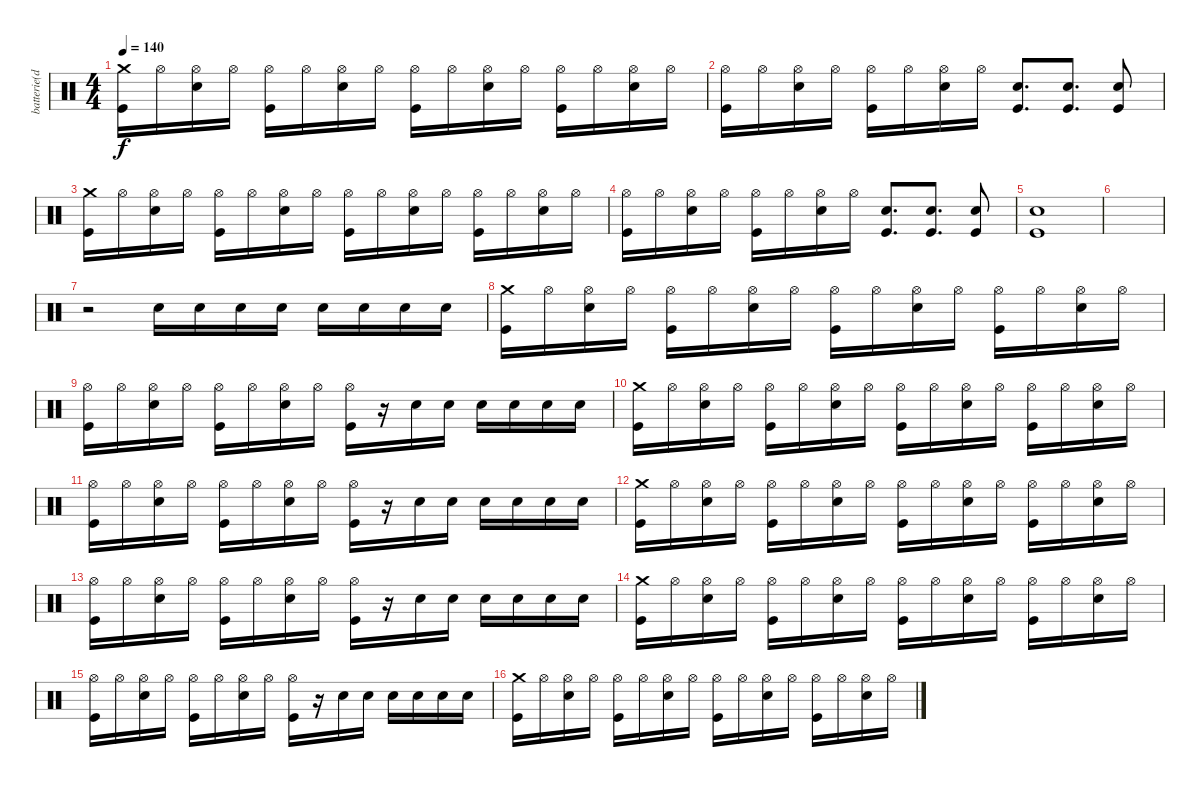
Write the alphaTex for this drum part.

\track ("batterie(dru stix)" "batterie(d") {instrument percussion}
\staff {score}
\articulation defaults
\ts (4 4)
\tempo 140
\clef neutral
\ks c
("Crash medium (hit)" "Kick (hit)").16{dy f} "Hi-Hat (open)".16 ("Hi-Hat (open)" "Snare (hit) 2").16 "Hi-Hat (open)".16 ("Hi-Hat (open)" "Kick (hit)").16 "Hi-Hat (open)".16 ("Hi-Hat (open)" "Snare (hit) 2").16 "Hi-Hat (open)".16 ("Hi-Hat (open)" "Kick (hit)").16 "Hi-Hat (open)".16 ("Hi-Hat (open)" "Snare (hit) 2").16 "Hi-Hat (open)".16 ("Hi-Hat (open)" "Kick (hit)").16 "Hi-Hat (open)".16 ("Hi-Hat (open)" "Snare (hit) 2").16 "Hi-Hat (open)".16 |
("Hi-Hat (open)" "Kick (hit)").16 "Hi-Hat (open)".16 ("Hi-Hat (open)" "Snare (hit) 2").16 "Hi-Hat (open)".16 ("Hi-Hat (open)" "Kick (hit)").16 "Hi-Hat (open)".16 ("Hi-Hat (open)" "Snare (hit) 2").16 "Hi-Hat (open)".16 ("Snare (hit) 2" "Kick (hit)").8{d} ("Snare (hit) 2" "Kick (hit)").8{d} ("Snare (hit) 2" "Kick (hit)").8 |
("Crash medium (hit)" "Kick (hit)").16 "Hi-Hat (open)".16 ("Hi-Hat (open)" "Snare (hit) 2").16 "Hi-Hat (open)".16 ("Hi-Hat (open)" "Kick (hit)").16 "Hi-Hat (open)".16 ("Hi-Hat (open)" "Snare (hit) 2").16 "Hi-Hat (open)".16 ("Hi-Hat (open)" "Kick (hit)").16 "Hi-Hat (open)".16 ("Hi-Hat (open)" "Snare (hit) 2").16 "Hi-Hat (open)".16 ("Hi-Hat (open)" "Kick (hit)").16 "Hi-Hat (open)".16 ("Hi-Hat (open)" "Snare (hit) 2").16 "Hi-Hat (open)".16 |
("Hi-Hat (open)" "Kick (hit)").16 "Hi-Hat (open)".16 ("Hi-Hat (open)" "Snare (hit) 2").16 "Hi-Hat (open)".16 ("Hi-Hat (open)" "Kick (hit)").16 "Hi-Hat (open)".16 ("Hi-Hat (open)" "Snare (hit) 2").16 "Hi-Hat (open)".16 ("Snare (hit) 2" "Kick (hit)").8{d} ("Snare (hit) 2" "Kick (hit)").8{d} ("Snare (hit) 2" "Kick (hit)").8 |
("Snare (hit) 2" "Kick (hit)").1 |
|
r.2 "Snare (hit) 2".16 "Snare (hit) 2".16 "Snare (hit) 2".16 "Snare (hit) 2".16 "Snare (hit) 2".16 "Snare (hit) 2".16 "Snare (hit) 2".16 "Snare (hit) 2".16 |
("Crash medium (hit)" "Kick (hit)").16 "Hi-Hat (open)".16 ("Hi-Hat (open)" "Snare (hit) 2").16 "Hi-Hat (open)".16 ("Hi-Hat (open)" "Kick (hit)").16 "Hi-Hat (open)".16 ("Hi-Hat (open)" "Snare (hit) 2").16 "Hi-Hat (open)".16 ("Hi-Hat (open)" "Kick (hit)").16 "Hi-Hat (open)".16 ("Hi-Hat (open)" "Snare (hit) 2").16 "Hi-Hat (open)".16 ("Hi-Hat (open)" "Kick (hit)").16 "Hi-Hat (open)".16 ("Hi-Hat (open)" "Snare (hit) 2").16 "Hi-Hat (open)".16 |
("Hi-Hat (open)" "Kick (hit)").16 "Hi-Hat (open)".16 ("Hi-Hat (open)" "Snare (hit) 2").16 "Hi-Hat (open)".16 ("Hi-Hat (open)" "Kick (hit)").16 "Hi-Hat (open)".16 ("Hi-Hat (open)" "Snare (hit) 2").16 "Hi-Hat (open)".16 ("Hi-Hat (open)" "Kick (hit)").16 r.16 "Snare (hit) 2".16 "Snare (hit) 2".16 "Snare (hit) 2".16 "Snare (hit) 2".16 "Snare (hit) 2".16 "Snare (hit) 2".16 |
("Crash medium (hit)" "Kick (hit)").16 "Hi-Hat (open)".16 ("Hi-Hat (open)" "Snare (hit) 2").16 "Hi-Hat (open)".16 ("Hi-Hat (open)" "Kick (hit)").16 "Hi-Hat (open)".16 ("Hi-Hat (open)" "Snare (hit) 2").16 "Hi-Hat (open)".16 ("Hi-Hat (open)" "Kick (hit)").16 "Hi-Hat (open)".16 ("Hi-Hat (open)" "Snare (hit) 2").16 "Hi-Hat (open)".16 ("Hi-Hat (open)" "Kick (hit)").16 "Hi-Hat (open)".16 ("Hi-Hat (open)" "Snare (hit) 2").16 "Hi-Hat (open)".16 |
("Hi-Hat (open)" "Kick (hit)").16 "Hi-Hat (open)".16 ("Hi-Hat (open)" "Snare (hit) 2").16 "Hi-Hat (open)".16 ("Hi-Hat (open)" "Kick (hit)").16 "Hi-Hat (open)".16 ("Hi-Hat (open)" "Snare (hit) 2").16 "Hi-Hat (open)".16 ("Hi-Hat (open)" "Kick (hit)").16 r.16 "Snare (hit) 2".16 "Snare (hit) 2".16 "Snare (hit) 2".16 "Snare (hit) 2".16 "Snare (hit) 2".16 "Snare (hit) 2".16 |
("Crash medium (hit)" "Kick (hit)").16 "Hi-Hat (open)".16 ("Hi-Hat (open)" "Snare (hit) 2").16 "Hi-Hat (open)".16 ("Hi-Hat (open)" "Kick (hit)").16 "Hi-Hat (open)".16 ("Hi-Hat (open)" "Snare (hit) 2").16 "Hi-Hat (open)".16 ("Hi-Hat (open)" "Kick (hit)").16 "Hi-Hat (open)".16 ("Hi-Hat (open)" "Snare (hit) 2").16 "Hi-Hat (open)".16 ("Hi-Hat (open)" "Kick (hit)").16 "Hi-Hat (open)".16 ("Hi-Hat (open)" "Snare (hit) 2").16 "Hi-Hat (open)".16 |
("Hi-Hat (open)" "Kick (hit)").16 "Hi-Hat (open)".16 ("Hi-Hat (open)" "Snare (hit) 2").16 "Hi-Hat (open)".16 ("Hi-Hat (open)" "Kick (hit)").16 "Hi-Hat (open)".16 ("Hi-Hat (open)" "Snare (hit) 2").16 "Hi-Hat (open)".16 ("Hi-Hat (open)" "Kick (hit)").16 r.16 "Snare (hit) 2".16 "Snare (hit) 2".16 "Snare (hit) 2".16 "Snare (hit) 2".16 "Snare (hit) 2".16 "Snare (hit) 2".16 |
("Crash medium (hit)" "Kick (hit)").16 "Hi-Hat (open)".16 ("Hi-Hat (open)" "Snare (hit) 2").16 "Hi-Hat (open)".16 ("Hi-Hat (open)" "Kick (hit)").16 "Hi-Hat (open)".16 ("Hi-Hat (open)" "Snare (hit) 2").16 "Hi-Hat (open)".16 ("Hi-Hat (open)" "Kick (hit)").16 "Hi-Hat (open)".16 ("Hi-Hat (open)" "Snare (hit) 2").16 "Hi-Hat (open)".16 ("Hi-Hat (open)" "Kick (hit)").16 "Hi-Hat (open)".16 ("Hi-Hat (open)" "Snare (hit) 2").16 "Hi-Hat (open)".16 |
("Hi-Hat (open)" "Kick (hit)").16 "Hi-Hat (open)".16 ("Hi-Hat (open)" "Snare (hit) 2").16 "Hi-Hat (open)".16 ("Hi-Hat (open)" "Kick (hit)").16 "Hi-Hat (open)".16 ("Hi-Hat (open)" "Snare (hit) 2").16 "Hi-Hat (open)".16 ("Hi-Hat (open)" "Kick (hit)").16 r.16 "Snare (hit) 2".16 "Snare (hit) 2".16 "Snare (hit) 2".16 "Snare (hit) 2".16 "Snare (hit) 2".16 "Snare (hit) 2".16 |
("Crash medium (hit)" "Kick (hit)").16 "Hi-Hat (open)".16 ("Hi-Hat (open)" "Snare (hit) 2").16 "Hi-Hat (open)".16 ("Hi-Hat (open)" "Kick (hit)").16 "Hi-Hat (open)".16 ("Hi-Hat (open)" "Snare (hit) 2").16 "Hi-Hat (open)".16 ("Hi-Hat (open)" "Kick (hit)").16 "Hi-Hat (open)".16 ("Hi-Hat (open)" "Snare (hit) 2").16 "Hi-Hat (open)".16 ("Hi-Hat (open)" "Kick (hit)").16 "Hi-Hat (open)".16 ("Hi-Hat (open)" "Snare (hit) 2").16 "Hi-Hat (open)".16
